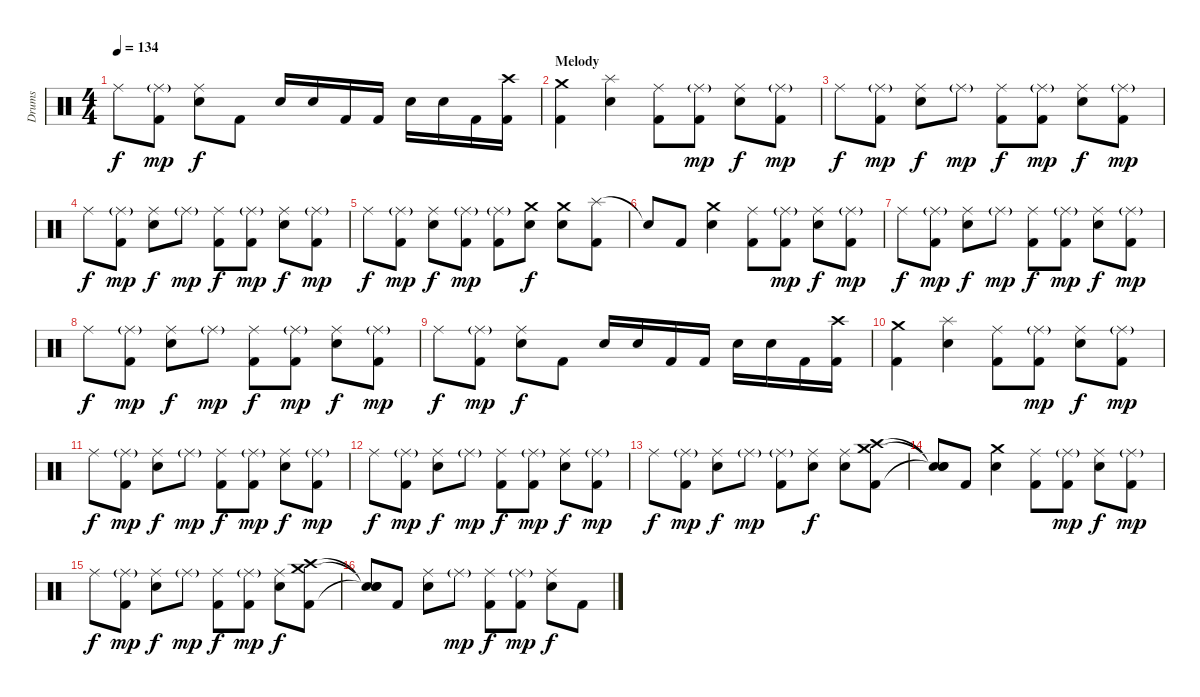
\track ("Drums" "Drums") {instrument percussion}
\staff {score}
\articulation defaults
\ts (4 4)
\tempo 134
\clef neutral
\ks c "Ride (middle)".8{dy f}
("Ride (middle)"{g} "Kick (hit) 2").8{dy mp} ("Ride (middle)" "Snare (hit) 2").8{dy f} "Kick (hit) 2".8 "Snare (hit) 2".16 "Snare (hit) 2".16 "Kick (hit) 2".16 "Kick (hit) 2".16 "Snare (hit) 2".16 "Snare (hit) 2".16 "Kick (hit) 2".16 ("Crash high (hit)" "Kick (hit) 2").16 |
\section ("" "Melody")
("Crash medium (hit)" "Kick (hit) 2").4 ("Splash (hit)" "Snare (hit) 2").4 ("Ride (middle)" "Kick (hit) 2").8 ("Ride (middle)"{g} "Kick (hit) 2").8{dy mp} ("Ride (middle)" "Snare (hit) 2").8{dy f} ("Ride (middle)"{g} "Kick (hit) 2").8{dy mp} |
"Ride (middle)".8{dy f} ("Ride (middle)"{g} "Kick (hit) 2").8{dy mp} ("Ride (middle)" "Snare (hit) 2").8{dy f} "Ride (middle)"{g}.8{dy mp} ("Ride (middle)" "Kick (hit) 2").8{dy f} ("Ride (middle)"{g} "Kick (hit) 2").8{dy mp} ("Ride (middle)" "Snare (hit) 2").8{dy f} ("Ride (middle)"{g} "Kick (hit) 2").8{dy mp} |
"Ride (middle)".8{dy f} ("Ride (middle)"{g} "Kick (hit) 2").8{dy mp} ("Ride (middle)" "Snare (hit) 2").8{dy f} "Ride (middle)"{g}.8{dy mp} ("Ride (middle)" "Kick (hit) 2").8{dy f} ("Ride (middle)"{g} "Kick (hit) 2").8{dy mp} ("Ride (middle)" "Snare (hit) 2").8{dy f} ("Ride (middle)"{g} "Kick (hit) 2").8{dy mp} |
"Ride (middle)".8{dy f} ("Ride (middle)"{g} "Kick (hit) 2").8{dy mp} ("Ride (middle)" "Snare (hit) 2").8{dy f} ("Ride (middle)"{g} "Kick (hit) 2").8{dy mp} ("Ride (middle)"{g} "Kick (hit) 2").8 ("Crash medium (hit)" "Snare (hit) 2").8{dy f} ("Crash medium (hit)" "Snare (hit) 2").8 ("Splash (hit)" "Kick (hit) 2").8 |
"Snare (hit)"{t}.8 "Kick (hit) 2".8 ("Crash medium (hit)" "Snare (hit) 2").4 ("Ride (middle)" "Kick (hit) 2").8 ("Ride (middle)"{g} "Kick (hit) 2").8{dy mp} ("Ride (middle)" "Snare (hit) 2").8{dy f} ("Ride (middle)"{g} "Kick (hit) 2").8{dy mp} |
"Ride (middle)".8{dy f} ("Ride (middle)"{g} "Kick (hit) 2").8{dy mp} ("Ride (middle)" "Snare (hit) 2").8{dy f} "Ride (middle)"{g}.8{dy mp} ("Ride (middle)" "Kick (hit) 2").8{dy f} ("Ride (middle)"{g} "Kick (hit) 2").8{dy mp} ("Ride (middle)" "Snare (hit) 2").8{dy f} ("Ride (middle)"{g} "Kick (hit) 2").8{dy mp} |
"Ride (middle)".8{dy f} ("Ride (middle)"{g} "Kick (hit) 2").8{dy mp} ("Ride (middle)" "Snare (hit) 2").8{dy f} "Ride (middle)"{g}.8{dy mp} ("Ride (middle)" "Kick (hit) 2").8{dy f} ("Ride (middle)"{g} "Kick (hit) 2").8{dy mp} ("Ride (middle)" "Snare (hit) 2").8{dy f} ("Ride (middle)"{g} "Kick (hit) 2").8{dy mp} |
"Ride (middle)".8{dy f} ("Ride (middle)"{g} "Kick (hit) 2").8{dy mp} ("Ride (middle)" "Snare (hit) 2").8{dy f} "Kick (hit) 2".8 "Snare (hit) 2".16 "Snare (hit) 2".16 "Kick (hit) 2".16 "Kick (hit) 2".16 "Snare (hit) 2".16 "Snare (hit) 2".16 "Kick (hit) 2".16 ("Crash high (hit)" "Kick (hit) 2").16 |
("Crash medium (hit)" "Kick (hit) 2").4 ("Splash (hit)" "Snare (hit) 2").4 ("Ride (middle)" "Kick (hit) 2").8 ("Ride (middle)"{g} "Kick (hit) 2").8{dy mp} ("Ride (middle)" "Snare (hit) 2").8{dy f} ("Ride (middle)"{g} "Kick (hit) 2").8{dy mp} |
"Ride (middle)".8{dy f} ("Ride (middle)"{g} "Kick (hit) 2").8{dy mp} ("Ride (middle)" "Snare (hit) 2").8{dy f} "Ride (middle)"{g}.8{dy mp} ("Ride (middle)" "Kick (hit) 2").8{dy f} ("Ride (middle)"{g} "Kick (hit) 2").8{dy mp} ("Ride (middle)" "Snare (hit) 2").8{dy f} ("Ride (middle)"{g} "Kick (hit) 2").8{dy mp} |
"Ride (middle)".8{dy f} ("Ride (middle)"{g} "Kick (hit) 2").8{dy mp} ("Ride (middle)" "Snare (hit) 2").8{dy f} "Ride (middle)"{g}.8{dy mp} ("Ride (middle)" "Kick (hit) 2").8{dy f} ("Ride (middle)"{g} "Kick (hit) 2").8{dy mp} ("Ride (middle)" "Snare (hit) 2").8{dy f} ("Ride (middle)"{g} "Kick (hit) 2").8{dy mp} |
"Ride (middle)".8{dy f} ("Ride (middle)"{g} "Kick (hit) 2").8{dy mp} ("Ride (middle)" "Snare (hit) 2").8{dy f} "Ride (middle)"{g}.8{dy mp} ("Ride (middle)"{g} "Kick (hit) 2").8 ("Ride (middle)" "Snare (hit) 2").8{dy f} ("Ride (middle)" "Snare (hit) 2").8 ("Crash medium (hit)" "Crash high (hit)" "Kick (hit) 2").8 |
("Snare (hit)"{t} "Snare (hit)"{t} "Snare (hit)"{t}).8 "Kick (hit) 2".8 ("Crash medium (hit)" "Snare (hit) 2").4 ("Ride (middle)" "Kick (hit) 2").8 ("Ride (middle)"{g} "Kick (hit) 2").8{dy mp} ("Ride (middle)" "Snare (hit) 2").8{dy f} ("Ride (middle)"{g} "Kick (hit) 2").8{dy mp} |
"Ride (middle)".8{dy f} ("Ride (middle)"{g} "Kick (hit) 2").8{dy mp} ("Ride (middle)" "Snare (hit) 2").8{dy f} "Ride (middle)"{g}.8{dy mp} ("Ride (middle)" "Kick (hit) 2").8{dy f} ("Ride (middle)"{g} "Kick (hit) 2").8{dy mp} ("Ride (middle)" "Snare (hit) 2").8{dy f} ("Crash medium (hit)" "Crash high (hit)" "Kick (hit) 2").8 |
("Snare (hit)"{t} "Snare (hit)"{t} "Snare (hit)"{t}).8 "Kick (hit) 2".8 ("Ride (middle)" "Snare (hit) 2").8 "Ride (middle)"{g}.8{dy mp} ("Ride (middle)" "Kick (hit) 2").8{dy f} ("Ride (middle)"{g} "Kick (hit) 2").8{dy mp} ("Ride (middle)" "Snare (hit) 2").8{dy f} "Kick (hit) 2".8
